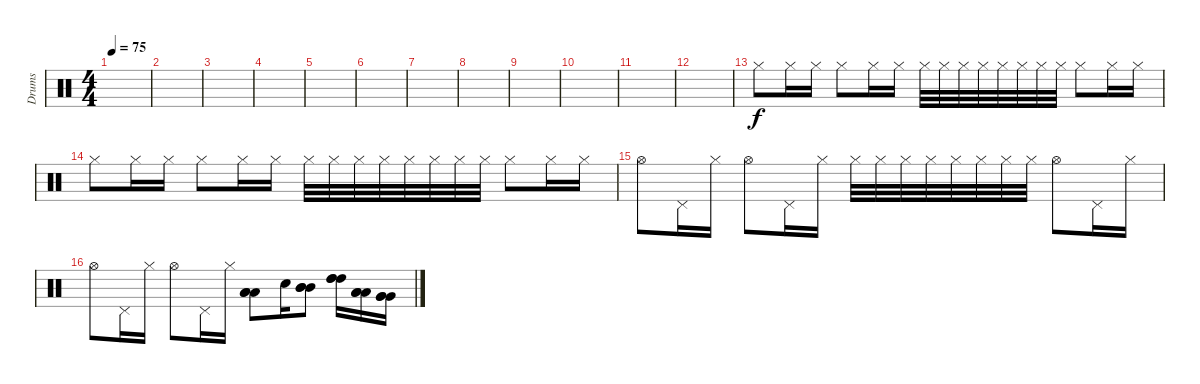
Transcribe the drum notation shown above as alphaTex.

\track ("Drums" "Drums") {instrument percussion}
\staff {score}
\articulation defaults
\ts (4 4)
\tempo 75
\clef neutral
\ks c
|
|
|
|
|
|
|
|
|
|
|
|
"Hi-Hat (closed)".8 "Hi-Hat (closed)".16 "Hi-Hat (closed)".16 "Hi-Hat (closed)".8 "Hi-Hat (closed)".16 "Hi-Hat (closed)".16 "Hi-Hat (closed)".32 "Hi-Hat (closed)".32 "Hi-Hat (closed)".32 "Hi-Hat (closed)".32 "Hi-Hat (closed)".32 "Hi-Hat (closed)".32 "Hi-Hat (closed)".32 "Hi-Hat (closed)".32 "Hi-Hat (closed)".8 "Hi-Hat (closed)".16 "Hi-Hat (closed)".16 |
"Hi-Hat (closed)".8 "Hi-Hat (closed)".16 "Hi-Hat (closed)".16 "Hi-Hat (closed)".8 "Hi-Hat (closed)".16 "Hi-Hat (closed)".16 "Hi-Hat (closed)".32 "Hi-Hat (closed)".32 "Hi-Hat (closed)".32 "Hi-Hat (closed)".32 "Hi-Hat (closed)".32 "Hi-Hat (closed)".32 "Hi-Hat (closed)".32 "Hi-Hat (closed)".32 "Hi-Hat (closed)".8 "Hi-Hat (closed)".16 "Hi-Hat (closed)".16 |
"Hi-Hat (open)".8 "Pedal Hi-Hat (hit)".16 "Hi-Hat (closed)".16 "Hi-Hat (open)".8 "Pedal Hi-Hat (hit)".16 "Hi-Hat (closed)".16 "Hi-Hat (closed)".32 "Hi-Hat (closed)".32 "Hi-Hat (closed)".32 "Hi-Hat (closed)".32 "Hi-Hat (closed)".32 "Hi-Hat (closed)".32 "Hi-Hat (closed)".32 "Hi-Hat (closed)".32 "Hi-Hat (open)".8 "Pedal Hi-Hat (hit)".16 "Hi-Hat (closed)".16 |
"Hi-Hat (open)".8 "Pedal Hi-Hat (hit)".16 "Hi-Hat (closed)".16 "Hi-Hat (open)".8 "Pedal Hi-Hat (hit)".16 "Hi-Hat (closed)".16 ("Low Tom (hit)" "Low Tom (hit)" "Low Tom (hit)").8 "Electric Snare (hit)".16 ("Mid Tom (hit)" "Mid Tom (hit)" "Mid Tom (hit)").8 ("High Tom (hit)" "High Tom (hit)" "High Tom (hit)").16 ("Low Tom (hit)" "Low Tom (hit)" "Low Tom (hit)").16 ("Very Low Tom (hit)" "Very Low Tom (hit)" "Very Low Tom (hit)").16
